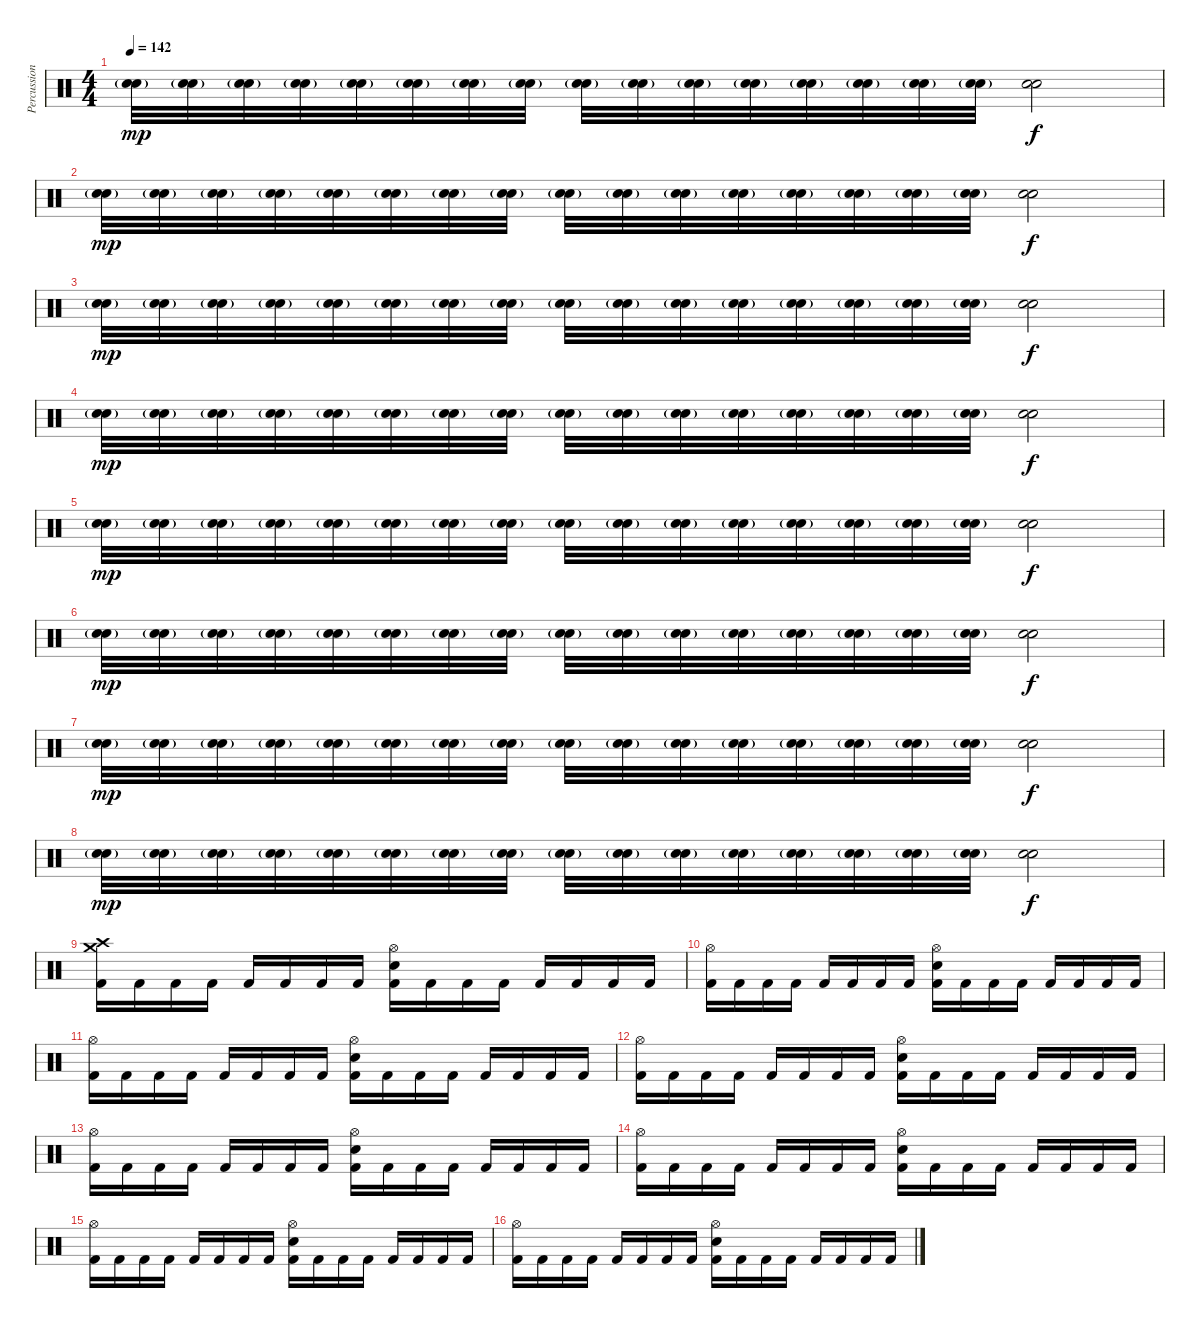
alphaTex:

\track ("Percussion" "Percussion") {instrument percussion}
\staff {score}
\articulation defaults
\ts (4 4)
\tempo 142
\clef neutral
\ks c
("Electric Snare (hit)"{g} "Snare (hit) 2"{g}).32{dy mp} ("Electric Snare (hit)"{g} "Snare (hit) 2"{g}).32 ("Electric Snare (hit)"{g} "Snare (hit) 2"{g}).32 ("Electric Snare (hit)"{g} "Snare (hit) 2"{g}).32 ("Electric Snare (hit)"{g} "Snare (hit) 2"{g}).32 ("Electric Snare (hit)"{g} "Snare (hit) 2"{g}).32 ("Electric Snare (hit)"{g} "Snare (hit) 2"{g}).32 ("Electric Snare (hit)"{g} "Snare (hit) 2"{g}).32 ("Electric Snare (hit)"{g} "Snare (hit) 2"{g}).32 ("Electric Snare (hit)"{g} "Snare (hit) 2"{g}).32 ("Electric Snare (hit)"{g} "Snare (hit) 2"{g}).32 ("Electric Snare (hit)"{g} "Snare (hit) 2"{g}).32 ("Electric Snare (hit)"{g} "Snare (hit) 2"{g}).32 ("Electric Snare (hit)"{g} "Snare (hit) 2"{g}).32 ("Electric Snare (hit)"{g} "Snare (hit) 2"{g}).32 ("Electric Snare (hit)"{g} "Snare (hit) 2"{g}).32 ("Electric Snare (hit)" "Snare (hit) 2").2{dy f} |
("Electric Snare (hit)"{g} "Snare (hit) 2"{g}).32{dy mp} ("Electric Snare (hit)"{g} "Snare (hit) 2"{g}).32 ("Electric Snare (hit)"{g} "Snare (hit) 2"{g}).32 ("Electric Snare (hit)"{g} "Snare (hit) 2"{g}).32 ("Electric Snare (hit)"{g} "Snare (hit) 2"{g}).32 ("Electric Snare (hit)"{g} "Snare (hit) 2"{g}).32 ("Electric Snare (hit)"{g} "Snare (hit) 2"{g}).32 ("Electric Snare (hit)"{g} "Snare (hit) 2"{g}).32 ("Electric Snare (hit)"{g} "Snare (hit) 2"{g}).32 ("Electric Snare (hit)"{g} "Snare (hit) 2"{g}).32 ("Electric Snare (hit)"{g} "Snare (hit) 2"{g}).32 ("Electric Snare (hit)"{g} "Snare (hit) 2"{g}).32 ("Electric Snare (hit)"{g} "Snare (hit) 2"{g}).32 ("Electric Snare (hit)"{g} "Snare (hit) 2"{g}).32 ("Electric Snare (hit)"{g} "Snare (hit) 2"{g}).32 ("Electric Snare (hit)"{g} "Snare (hit) 2"{g}).32 ("Electric Snare (hit)" "Snare (hit) 2").2{dy f} |
("Electric Snare (hit)"{g} "Snare (hit) 2"{g}).32{dy mp volume 11} ("Electric Snare (hit)"{g} "Snare (hit) 2"{g}).32 ("Electric Snare (hit)"{g} "Snare (hit) 2"{g}).32 ("Electric Snare (hit)"{g} "Snare (hit) 2"{g}).32 ("Electric Snare (hit)"{g} "Snare (hit) 2"{g}).32 ("Electric Snare (hit)"{g} "Snare (hit) 2"{g}).32 ("Electric Snare (hit)"{g} "Snare (hit) 2"{g}).32 ("Electric Snare (hit)"{g} "Snare (hit) 2"{g}).32 ("Electric Snare (hit)"{g} "Snare (hit) 2"{g}).32 ("Electric Snare (hit)"{g} "Snare (hit) 2"{g}).32 ("Electric Snare (hit)"{g} "Snare (hit) 2"{g}).32 ("Electric Snare (hit)"{g} "Snare (hit) 2"{g}).32 ("Electric Snare (hit)"{g} "Snare (hit) 2"{g}).32 ("Electric Snare (hit)"{g} "Snare (hit) 2"{g}).32 ("Electric Snare (hit)"{g} "Snare (hit) 2"{g}).32 ("Electric Snare (hit)"{g} "Snare (hit) 2"{g}).32 ("Electric Snare (hit)" "Snare (hit) 2").2{dy f} |
("Electric Snare (hit)"{g} "Snare (hit) 2"{g}).32{dy mp} ("Electric Snare (hit)"{g} "Snare (hit) 2"{g}).32 ("Electric Snare (hit)"{g} "Snare (hit) 2"{g}).32 ("Electric Snare (hit)"{g} "Snare (hit) 2"{g}).32 ("Electric Snare (hit)"{g} "Snare (hit) 2"{g}).32 ("Electric Snare (hit)"{g} "Snare (hit) 2"{g}).32 ("Electric Snare (hit)"{g} "Snare (hit) 2"{g}).32 ("Electric Snare (hit)"{g} "Snare (hit) 2"{g}).32 ("Electric Snare (hit)"{g} "Snare (hit) 2"{g}).32 ("Electric Snare (hit)"{g} "Snare (hit) 2"{g}).32 ("Electric Snare (hit)"{g} "Snare (hit) 2"{g}).32 ("Electric Snare (hit)"{g} "Snare (hit) 2"{g}).32 ("Electric Snare (hit)"{g} "Snare (hit) 2"{g}).32 ("Electric Snare (hit)"{g} "Snare (hit) 2"{g}).32 ("Electric Snare (hit)"{g} "Snare (hit) 2"{g}).32 ("Electric Snare (hit)"{g} "Snare (hit) 2"{g}).32 ("Electric Snare (hit)" "Snare (hit) 2").2{dy f} |
("Electric Snare (hit)"{g} "Snare (hit) 2"{g}).32{dy mp} ("Electric Snare (hit)"{g} "Snare (hit) 2"{g}).32 ("Electric Snare (hit)"{g} "Snare (hit) 2"{g}).32 ("Electric Snare (hit)"{g} "Snare (hit) 2"{g}).32 ("Electric Snare (hit)"{g} "Snare (hit) 2"{g}).32 ("Electric Snare (hit)"{g} "Snare (hit) 2"{g}).32 ("Electric Snare (hit)"{g} "Snare (hit) 2"{g}).32 ("Electric Snare (hit)"{g} "Snare (hit) 2"{g}).32 ("Electric Snare (hit)"{g} "Snare (hit) 2"{g}).32 ("Electric Snare (hit)"{g} "Snare (hit) 2"{g}).32 ("Electric Snare (hit)"{g} "Snare (hit) 2"{g}).32 ("Electric Snare (hit)"{g} "Snare (hit) 2"{g}).32 ("Electric Snare (hit)"{g} "Snare (hit) 2"{g}).32 ("Electric Snare (hit)"{g} "Snare (hit) 2"{g}).32 ("Electric Snare (hit)"{g} "Snare (hit) 2"{g}).32 ("Electric Snare (hit)"{g} "Snare (hit) 2"{g}).32 ("Electric Snare (hit)" "Snare (hit) 2").2{dy f} |
("Electric Snare (hit)"{g} "Snare (hit) 2"{g}).32{dy mp} ("Electric Snare (hit)"{g} "Snare (hit) 2"{g}).32 ("Electric Snare (hit)"{g} "Snare (hit) 2"{g}).32 ("Electric Snare (hit)"{g} "Snare (hit) 2"{g}).32 ("Electric Snare (hit)"{g} "Snare (hit) 2"{g}).32 ("Electric Snare (hit)"{g} "Snare (hit) 2"{g}).32 ("Electric Snare (hit)"{g} "Snare (hit) 2"{g}).32 ("Electric Snare (hit)"{g} "Snare (hit) 2"{g}).32 ("Electric Snare (hit)"{g} "Snare (hit) 2"{g}).32 ("Electric Snare (hit)"{g} "Snare (hit) 2"{g}).32 ("Electric Snare (hit)"{g} "Snare (hit) 2"{g}).32 ("Electric Snare (hit)"{g} "Snare (hit) 2"{g}).32 ("Electric Snare (hit)"{g} "Snare (hit) 2"{g}).32 ("Electric Snare (hit)"{g} "Snare (hit) 2"{g}).32 ("Electric Snare (hit)"{g} "Snare (hit) 2"{g}).32 ("Electric Snare (hit)"{g} "Snare (hit) 2"{g}).32 ("Electric Snare (hit)" "Snare (hit) 2").2{dy f} |
("Electric Snare (hit)"{g} "Snare (hit) 2"{g}).32{dy mp volume 13} ("Electric Snare (hit)"{g} "Snare (hit) 2"{g}).32 ("Electric Snare (hit)"{g} "Snare (hit) 2"{g}).32 ("Electric Snare (hit)"{g} "Snare (hit) 2"{g}).32 ("Electric Snare (hit)"{g} "Snare (hit) 2"{g}).32 ("Electric Snare (hit)"{g} "Snare (hit) 2"{g}).32 ("Electric Snare (hit)"{g} "Snare (hit) 2"{g}).32 ("Electric Snare (hit)"{g} "Snare (hit) 2"{g}).32 ("Electric Snare (hit)"{g} "Snare (hit) 2"{g}).32 ("Electric Snare (hit)"{g} "Snare (hit) 2"{g}).32 ("Electric Snare (hit)"{g} "Snare (hit) 2"{g}).32 ("Electric Snare (hit)"{g} "Snare (hit) 2"{g}).32 ("Electric Snare (hit)"{g} "Snare (hit) 2"{g}).32 ("Electric Snare (hit)"{g} "Snare (hit) 2"{g}).32 ("Electric Snare (hit)"{g} "Snare (hit) 2"{g}).32 ("Electric Snare (hit)"{g} "Snare (hit) 2"{g}).32 ("Electric Snare (hit)" "Snare (hit) 2").2{dy f} |
("Electric Snare (hit)"{g} "Snare (hit) 2"{g}).32{dy mp} ("Electric Snare (hit)"{g} "Snare (hit) 2"{g}).32 ("Electric Snare (hit)"{g} "Snare (hit) 2"{g}).32 ("Electric Snare (hit)"{g} "Snare (hit) 2"{g}).32 ("Electric Snare (hit)"{g} "Snare (hit) 2"{g}).32 ("Electric Snare (hit)"{g} "Snare (hit) 2"{g}).32 ("Electric Snare (hit)"{g} "Snare (hit) 2"{g}).32 ("Electric Snare (hit)"{g} "Snare (hit) 2"{g}).32 ("Electric Snare (hit)"{g} "Snare (hit) 2"{g}).32 ("Electric Snare (hit)"{g} "Snare (hit) 2"{g}).32 ("Electric Snare (hit)"{g} "Snare (hit) 2"{g}).32 ("Electric Snare (hit)"{g} "Snare (hit) 2"{g}).32 ("Electric Snare (hit)"{g} "Snare (hit) 2"{g}).32 ("Electric Snare (hit)"{g} "Snare (hit) 2"{g}).32 ("Electric Snare (hit)"{g} "Snare (hit) 2"{g}).32 ("Electric Snare (hit)"{g} "Snare (hit) 2"{g}).32 ("Electric Snare (hit)" "Snare (hit) 2").2{dy f} |
("Crash medium (hit)" "Crash high (hit)" "Kick (hit) 2").16 "Kick (hit) 2".16 "Kick (hit) 2".16 "Kick (hit) 2".16 "Kick (hit) 2".16 "Kick (hit) 2".16 "Kick (hit) 2".16 "Kick (hit) 2".16 ("Hi-Hat (open)" "Electric Snare (hit)" "Kick (hit) 2").16 "Kick (hit) 2".16 "Kick (hit) 2".16 "Kick (hit) 2".16 "Kick (hit) 2".16 "Kick (hit) 2".16 "Kick (hit) 2".16 "Kick (hit) 2".16 |
("Hi-Hat (open)" "Kick (hit) 2").16 "Kick (hit) 2".16 "Kick (hit) 2".16 "Kick (hit) 2".16 "Kick (hit) 2".16 "Kick (hit) 2".16 "Kick (hit) 2".16 "Kick (hit) 2".16 ("Hi-Hat (open)" "Electric Snare (hit)" "Kick (hit) 2").16 "Kick (hit) 2".16 "Kick (hit) 2".16 "Kick (hit) 2".16 "Kick (hit) 2".16 "Kick (hit) 2".16 "Kick (hit) 2".16 "Kick (hit) 2".16 |
("Hi-Hat (open)" "Kick (hit) 2").16 "Kick (hit) 2".16 "Kick (hit) 2".16 "Kick (hit) 2".16 "Kick (hit) 2".16 "Kick (hit) 2".16 "Kick (hit) 2".16 "Kick (hit) 2".16 ("Hi-Hat (open)" "Electric Snare (hit)" "Kick (hit) 2").16 "Kick (hit) 2".16 "Kick (hit) 2".16 "Kick (hit) 2".16 "Kick (hit) 2".16 "Kick (hit) 2".16 "Kick (hit) 2".16 "Kick (hit) 2".16 |
("Hi-Hat (open)" "Kick (hit) 2").16 "Kick (hit) 2".16 "Kick (hit) 2".16 "Kick (hit) 2".16 "Kick (hit) 2".16 "Kick (hit) 2".16 "Kick (hit) 2".16 "Kick (hit) 2".16 ("Hi-Hat (open)" "Electric Snare (hit)" "Kick (hit) 2").16 "Kick (hit) 2".16 "Kick (hit) 2".16 "Kick (hit) 2".16 "Kick (hit) 2".16 "Kick (hit) 2".16 "Kick (hit) 2".16 "Kick (hit) 2".16 |
("Hi-Hat (open)" "Kick (hit) 2").16 "Kick (hit) 2".16 "Kick (hit) 2".16 "Kick (hit) 2".16 "Kick (hit) 2".16 "Kick (hit) 2".16 "Kick (hit) 2".16 "Kick (hit) 2".16 ("Hi-Hat (open)" "Electric Snare (hit)" "Kick (hit) 2").16 "Kick (hit) 2".16 "Kick (hit) 2".16 "Kick (hit) 2".16 "Kick (hit) 2".16 "Kick (hit) 2".16 "Kick (hit) 2".16 "Kick (hit) 2".16 |
("Hi-Hat (open)" "Kick (hit) 2").16 "Kick (hit) 2".16 "Kick (hit) 2".16 "Kick (hit) 2".16 "Kick (hit) 2".16 "Kick (hit) 2".16 "Kick (hit) 2".16 "Kick (hit) 2".16 ("Hi-Hat (open)" "Electric Snare (hit)" "Kick (hit) 2").16 "Kick (hit) 2".16 "Kick (hit) 2".16 "Kick (hit) 2".16 "Kick (hit) 2".16 "Kick (hit) 2".16 "Kick (hit) 2".16 "Kick (hit) 2".16 |
("Hi-Hat (open)" "Kick (hit) 2").16 "Kick (hit) 2".16 "Kick (hit) 2".16 "Kick (hit) 2".16 "Kick (hit) 2".16 "Kick (hit) 2".16 "Kick (hit) 2".16 "Kick (hit) 2".16 ("Hi-Hat (open)" "Electric Snare (hit)" "Kick (hit) 2").16 "Kick (hit) 2".16 "Kick (hit) 2".16 "Kick (hit) 2".16 "Kick (hit) 2".16 "Kick (hit) 2".16 "Kick (hit) 2".16 "Kick (hit) 2".16 |
("Hi-Hat (open)" "Kick (hit) 2").16 "Kick (hit) 2".16 "Kick (hit) 2".16 "Kick (hit) 2".16 "Kick (hit) 2".16 "Kick (hit) 2".16 "Kick (hit) 2".16 "Kick (hit) 2".16 ("Hi-Hat (open)" "Electric Snare (hit)" "Kick (hit) 2").16 "Kick (hit) 2".16 "Kick (hit) 2".16 "Kick (hit) 2".16 "Kick (hit) 2".16 "Kick (hit) 2".16 "Kick (hit) 2".16 "Kick (hit) 2".16
